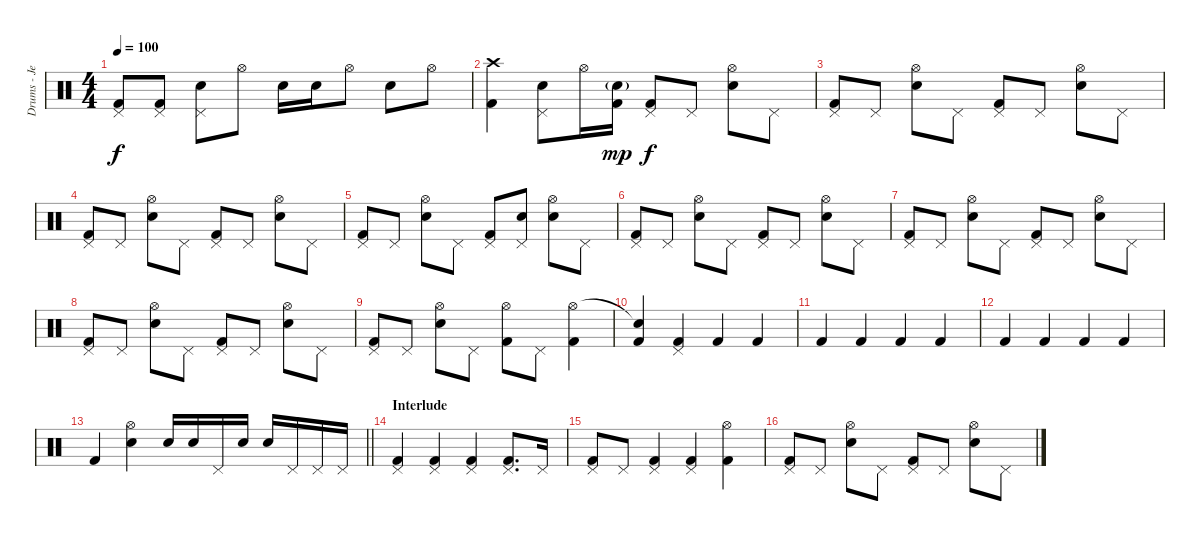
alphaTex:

\track ("Drums - Jeremiah Green" "Drums - Je") {instrument percussion}
\staff {score}
\articulation defaults
\ts (4 4)
\tempo 100
\clef neutral
\ks c
("Pedal Hi-Hat (hit)" "Kick (hit) 2").8{dy f} ("Pedal Hi-Hat (hit)" "Kick (hit) 2").8 ("Pedal Hi-Hat (hit)" "Electric Snare (hit)").8 "Hi-Hat (open)".8 "Electric Snare (hit)".16 "Electric Snare (hit)".16 "Hi-Hat (open)".8 "Electric Snare (hit)".8 "Hi-Hat (open)".8 |
("Crash high (hit)" "Kick (hit) 2").4 ("Pedal Hi-Hat (hit)" "Electric Snare (hit)").8 "Hi-Hat (open)".16 ("Electric Snare (hit)"{g} "Kick (hit) 2").16{dy mp} ("Pedal Hi-Hat (hit)" "Kick (hit) 2").8{dy f} "Pedal Hi-Hat (hit)".8 ("Hi-Hat (open)" "Electric Snare (hit)").8 "Pedal Hi-Hat (hit)".8 |
("Pedal Hi-Hat (hit)" "Kick (hit) 2").8 "Pedal Hi-Hat (hit)".8 ("Hi-Hat (open)" "Electric Snare (hit)").8 "Pedal Hi-Hat (hit)".8 ("Pedal Hi-Hat (hit)" "Kick (hit) 2").8 "Pedal Hi-Hat (hit)".8 ("Hi-Hat (open)" "Electric Snare (hit)").8 "Pedal Hi-Hat (hit)".8 |
("Pedal Hi-Hat (hit)" "Kick (hit) 2").8 "Pedal Hi-Hat (hit)".8 ("Hi-Hat (open)" "Electric Snare (hit)").8 "Pedal Hi-Hat (hit)".8 ("Pedal Hi-Hat (hit)" "Kick (hit) 2").8 "Pedal Hi-Hat (hit)".8 ("Hi-Hat (open)" "Electric Snare (hit)").8 "Pedal Hi-Hat (hit)".8 |
("Pedal Hi-Hat (hit)" "Kick (hit) 2").8 "Pedal Hi-Hat (hit)".8 ("Hi-Hat (open)" "Electric Snare (hit)").8 "Pedal Hi-Hat (hit)".8 ("Pedal Hi-Hat (hit)" "Kick (hit) 2").8 ("Pedal Hi-Hat (hit)" "Electric Snare (hit)").8 ("Hi-Hat (open)" "Electric Snare (hit)").8 "Pedal Hi-Hat (hit)".8 |
("Pedal Hi-Hat (hit)" "Kick (hit) 2").8 "Pedal Hi-Hat (hit)".8 ("Hi-Hat (open)" "Electric Snare (hit)").8 "Pedal Hi-Hat (hit)".8 ("Pedal Hi-Hat (hit)" "Kick (hit) 2").8 "Pedal Hi-Hat (hit)".8 ("Hi-Hat (open)" "Electric Snare (hit)").8 "Pedal Hi-Hat (hit)".8 |
("Pedal Hi-Hat (hit)" "Kick (hit) 2").8 "Pedal Hi-Hat (hit)".8 ("Hi-Hat (open)" "Electric Snare (hit)").8 "Pedal Hi-Hat (hit)".8 ("Pedal Hi-Hat (hit)" "Kick (hit) 2").8 "Pedal Hi-Hat (hit)".8 ("Hi-Hat (open)" "Electric Snare (hit)").8 "Pedal Hi-Hat (hit)".8 |
("Pedal Hi-Hat (hit)" "Kick (hit) 2").8 "Pedal Hi-Hat (hit)".8 ("Hi-Hat (open)" "Electric Snare (hit)").8 "Pedal Hi-Hat (hit)".8 ("Pedal Hi-Hat (hit)" "Kick (hit) 2").8 "Pedal Hi-Hat (hit)".8 ("Hi-Hat (open)" "Electric Snare (hit)").8 "Pedal Hi-Hat (hit)".8 |
("Pedal Hi-Hat (hit)" "Kick (hit) 2").8 "Pedal Hi-Hat (hit)".8 ("Hi-Hat (open)" "Electric Snare (hit)").8 "Pedal Hi-Hat (hit)".8 ("Hi-Hat (open)" "Kick (hit) 2").8 "Pedal Hi-Hat (hit)".8 ("Hi-Hat (open)" "Kick (hit) 2").4 |
("Snare (hit)"{t} "Kick (hit) 2").4 ("Pedal Hi-Hat (hit)" "Kick (hit) 2").4 "Kick (hit) 2".4 "Kick (hit) 2".4 |
"Kick (hit) 2".4 "Kick (hit) 2".4 "Kick (hit) 2".4 "Kick (hit) 2".4 |
"Kick (hit) 2".4 "Kick (hit) 2".4 "Kick (hit) 2".4 "Kick (hit) 2".4 |
\barLineRight lightlight "Kick (hit) 2".4
("Hi-Hat (open)" "Electric Snare (hit)").4 "Electric Snare (hit)".16 "Electric Snare (hit)".16 "Pedal Hi-Hat (hit)".16 "Electric Snare (hit)".16 "Electric Snare (hit)".16 "Pedal Hi-Hat (hit)".16 "Pedal Hi-Hat (hit)".16 "Pedal Hi-Hat (hit)".16 |
\section ("" "Interlude")
("Pedal Hi-Hat (hit)" "Kick (hit) 2").4 ("Pedal Hi-Hat (hit)" "Kick (hit) 2").4 ("Pedal Hi-Hat (hit)" "Kick (hit) 2").4 ("Pedal Hi-Hat (hit)" "Kick (hit) 2").8{d} "Pedal Hi-Hat (hit)".16 |
("Pedal Hi-Hat (hit)" "Kick (hit) 2").8 "Pedal Hi-Hat (hit)".8 ("Pedal Hi-Hat (hit)" "Kick (hit) 2").4 ("Pedal Hi-Hat (hit)" "Kick (hit) 2").4 ("Hi-Hat (open)" "Kick (hit) 2").4 |
("Pedal Hi-Hat (hit)" "Kick (hit) 2").8 "Pedal Hi-Hat (hit)".8 ("Hi-Hat (open)" "Electric Snare (hit)").8 "Pedal Hi-Hat (hit)".8 ("Pedal Hi-Hat (hit)" "Kick (hit) 2").8 "Pedal Hi-Hat (hit)".8 ("Hi-Hat (open)" "Electric Snare (hit)").8 "Pedal Hi-Hat (hit)".8
